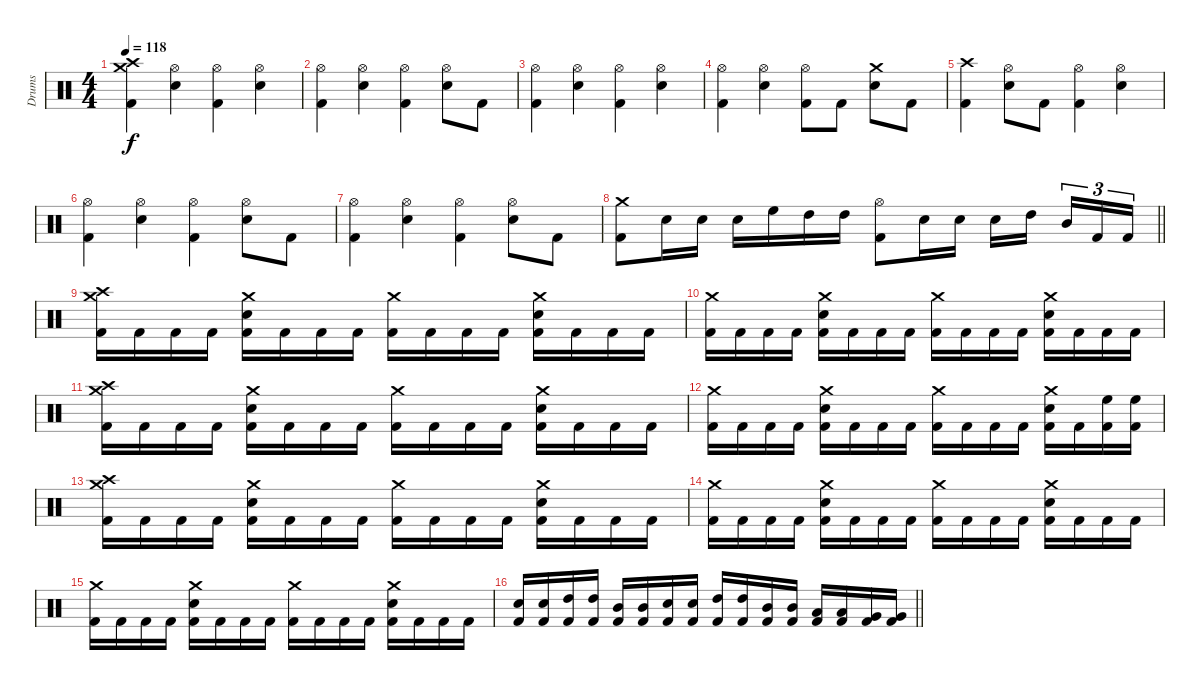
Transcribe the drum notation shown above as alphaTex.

\track ("Drums" "Drums") {instrument percussion}
\staff {score}
\articulation defaults
\ts (4 4)
\tempo 118
\clef neutral
\ks c
("Crash high (hit)" "Crash medium (hit)" "Kick (hit) 2").4{dy f} ("Hi-Hat (open)" "Electric Snare (hit)").4 ("Hi-Hat (open)" "Kick (hit) 2").4 ("Hi-Hat (open)" "Electric Snare (hit)").4 |
("Hi-Hat (open)" "Kick (hit) 2").4 ("Hi-Hat (open)" "Electric Snare (hit)").4 ("Hi-Hat (open)" "Kick (hit) 2").4 ("Hi-Hat (open)" "Electric Snare (hit)").8 "Kick (hit) 2".8 |
("Hi-Hat (open)" "Kick (hit) 2").4 ("Hi-Hat (open)" "Electric Snare (hit)").4 ("Hi-Hat (open)" "Kick (hit) 2").4 ("Hi-Hat (open)" "Electric Snare (hit)").4 |
("Hi-Hat (open)" "Kick (hit) 2").4 ("Hi-Hat (open)" "Electric Snare (hit)").4 ("Hi-Hat (open)" "Kick (hit) 2").8 "Kick (hit) 2".8 ("Crash medium (hit)" "Electric Snare (hit)").8 "Kick (hit) 2".8 |
("Crash high (hit)" "Kick (hit) 2").4 ("Hi-Hat (open)" "Electric Snare (hit)").8 "Kick (hit) 2".8 ("Hi-Hat (open)" "Kick (hit) 2").4 ("Hi-Hat (open)" "Electric Snare (hit)").4 |
("Hi-Hat (open)" "Kick (hit) 2").4 ("Hi-Hat (open)" "Electric Snare (hit)").4 ("Hi-Hat (open)" "Kick (hit) 2").4 ("Hi-Hat (open)" "Electric Snare (hit)").8 "Kick (hit) 2".8 |
("Hi-Hat (open)" "Kick (hit) 2").4 ("Hi-Hat (open)" "Electric Snare (hit)").4 ("Hi-Hat (open)" "Kick (hit) 2").4 ("Hi-Hat (open)" "Electric Snare (hit)").8 "Kick (hit) 2".8 |
\barLineRight lightlight
("Crash medium (hit)" "Kick (hit) 2").8 "Electric Snare (hit)".16 "Electric Snare (hit)".16 "Electric Snare (hit)".16 "High Floor Tom (hit)".16 "High Tom (hit)".16 "High Tom (hit)".16 ("Hi-Hat (open)" "Kick (hit) 2").8 "Electric Snare (hit)".16 "Electric Snare (hit)".16 "Electric Snare (hit)".16 "High Tom (hit)".16 "Mid Tom (hit)".16{tu (3 2)} "Kick (hit) 2".16{tu (3 2)} "Kick (hit) 2".16{tu (3 2)} |
("Crash medium (hit)" "Crash high (hit)" "Kick (hit) 2").16 "Kick (hit) 2".16 "Kick (hit) 2".16 "Kick (hit) 2".16 ("Crash medium (hit)" "Electric Snare (hit)" "Kick (hit) 2").16 "Kick (hit) 2".16 "Kick (hit) 2".16 "Kick (hit) 2".16 ("Crash medium (hit)" "Kick (hit) 2").16 "Kick (hit) 2".16 "Kick (hit) 2".16 "Kick (hit) 2".16 ("Crash medium (hit)" "Electric Snare (hit)" "Kick (hit) 2").16 "Kick (hit) 2".16 "Kick (hit) 2".16 "Kick (hit) 2".16 |
("Crash medium (hit)" "Kick (hit) 2").16 "Kick (hit) 2".16 "Kick (hit) 2".16 "Kick (hit) 2".16 ("Crash medium (hit)" "Electric Snare (hit)" "Kick (hit) 2").16 "Kick (hit) 2".16 "Kick (hit) 2".16 "Kick (hit) 2".16 ("Crash medium (hit)" "Kick (hit) 2").16 "Kick (hit) 2".16 "Kick (hit) 2".16 "Kick (hit) 2".16 ("Crash medium (hit)" "Electric Snare (hit)" "Kick (hit) 2").16 "Kick (hit) 2".16 "Kick (hit) 2".16 "Kick (hit) 2".16 |
("Crash medium (hit)" "Crash high (hit)" "Kick (hit) 2").16 "Kick (hit) 2".16 "Kick (hit) 2".16 "Kick (hit) 2".16 ("Crash medium (hit)" "Electric Snare (hit)" "Kick (hit) 2").16 "Kick (hit) 2".16 "Kick (hit) 2".16 "Kick (hit) 2".16 ("Crash medium (hit)" "Kick (hit) 2").16 "Kick (hit) 2".16 "Kick (hit) 2".16 "Kick (hit) 2".16 ("Crash medium (hit)" "Electric Snare (hit)" "Kick (hit) 2").16 "Kick (hit) 2".16 "Kick (hit) 2".16 "Kick (hit) 2".16 |
("Crash medium (hit)" "Kick (hit) 2").16 "Kick (hit) 2".16 "Kick (hit) 2".16 "Kick (hit) 2".16 ("Crash medium (hit)" "Electric Snare (hit)" "Kick (hit) 2").16 "Kick (hit) 2".16 "Kick (hit) 2".16 "Kick (hit) 2".16 ("Crash medium (hit)" "Kick (hit) 2").16 "Kick (hit) 2".16 "Kick (hit) 2".16 "Kick (hit) 2".16 ("Crash medium (hit)" "Electric Snare (hit)" "Kick (hit) 2").16 "Kick (hit) 2".16 ("High Floor Tom (hit)" "Kick (hit) 2").16 ("High Floor Tom (hit)" "Kick (hit) 2").16 |
("Crash medium (hit)" "Crash high (hit)" "Kick (hit) 2").16 "Kick (hit) 2".16 "Kick (hit) 2".16 "Kick (hit) 2".16 ("Crash medium (hit)" "Electric Snare (hit)" "Kick (hit) 2").16 "Kick (hit) 2".16 "Kick (hit) 2".16 "Kick (hit) 2".16 ("Crash medium (hit)" "Kick (hit) 2").16 "Kick (hit) 2".16 "Kick (hit) 2".16 "Kick (hit) 2".16 ("Crash medium (hit)" "Electric Snare (hit)" "Kick (hit) 2").16 "Kick (hit) 2".16 "Kick (hit) 2".16 "Kick (hit) 2".16 |
("Crash medium (hit)" "Kick (hit) 2").16 "Kick (hit) 2".16 "Kick (hit) 2".16 "Kick (hit) 2".16 ("Crash medium (hit)" "Electric Snare (hit)" "Kick (hit) 2").16 "Kick (hit) 2".16 "Kick (hit) 2".16 "Kick (hit) 2".16 ("Crash medium (hit)" "Kick (hit) 2").16 "Kick (hit) 2".16 "Kick (hit) 2".16 "Kick (hit) 2".16 ("Crash medium (hit)" "Electric Snare (hit)" "Kick (hit) 2").16 "Kick (hit) 2".16 "Kick (hit) 2".16 "Kick (hit) 2".16 |
("Crash medium (hit)" "Kick (hit) 2").16 "Kick (hit) 2".16 "Kick (hit) 2".16 "Kick (hit) 2".16 ("Crash medium (hit)" "Electric Snare (hit)" "Kick (hit) 2").16 "Kick (hit) 2".16 "Kick (hit) 2".16 "Kick (hit) 2".16 ("Crash medium (hit)" "Kick (hit) 2").16 "Kick (hit) 2".16 "Kick (hit) 2".16 "Kick (hit) 2".16 ("Crash medium (hit)" "Electric Snare (hit)" "Kick (hit) 2").16 "Kick (hit) 2".16 "Kick (hit) 2".16 "Kick (hit) 2".16 |
\barLineRight lightlight
("Electric Snare (hit)" "Kick (hit) 2").16 ("Electric Snare (hit)" "Kick (hit) 2").16 ("High Tom (hit)" "Kick (hit) 2").16 ("High Tom (hit)" "Kick (hit) 2").16 ("Mid Tom (hit)" "Kick (hit) 2").16 ("Mid Tom (hit)" "Kick (hit) 2").16 ("Electric Snare (hit)" "Kick (hit) 2").16 ("Electric Snare (hit)" "Kick (hit) 2").16 ("High Tom (hit)" "Kick (hit) 2").16 ("High Tom (hit)" "Kick (hit) 2").16 ("Mid Tom (hit)" "Kick (hit) 2").16 ("Mid Tom (hit)" "Kick (hit) 2").16 ("Low Tom (hit)" "Kick (hit) 2").16 ("Low Tom (hit)" "Kick (hit) 2").16 ("Very Low Tom (hit)" "Kick (hit) 2").16 ("Very Low Tom (hit)" "Kick (hit) 2").16
